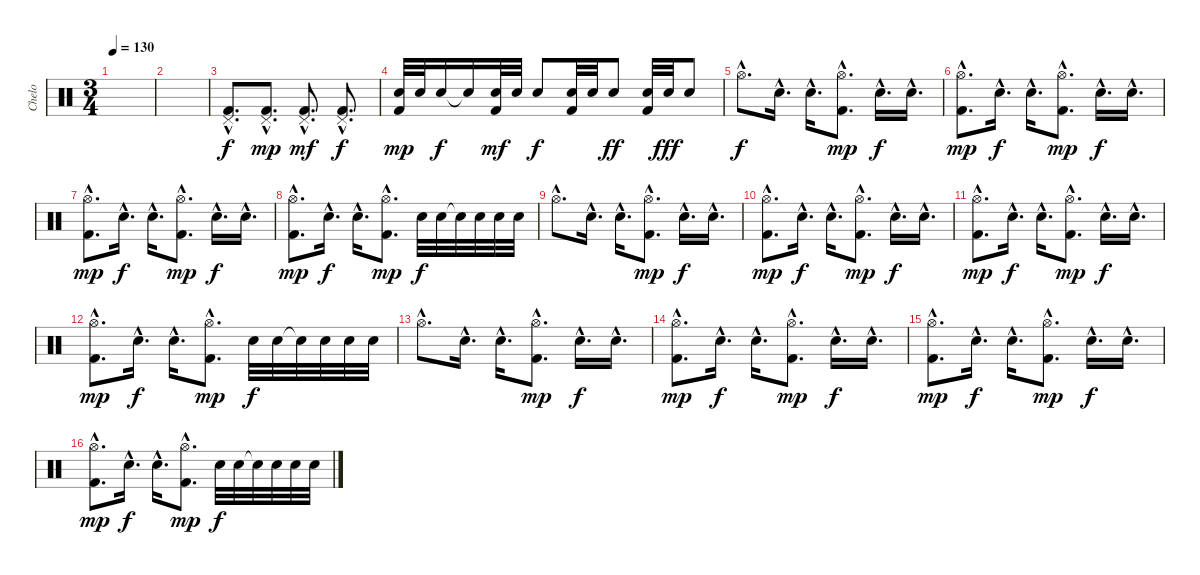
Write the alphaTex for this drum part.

\track ("Chelo" "Chelo") {instrument percussion}
\staff {score}
\articulation defaults
\ts (3 4)
\tempo 130
\clef neutral
\ks c
|
|
("Kick (hit) 2"{hac} "Pedal Hi-Hat (hit)"{hac}).8{d} ("Kick (hit) 2"{hac} "Pedal Hi-Hat (hit)"{hac}).8{d dy mp} ("Kick (hit) 2"{hac} "Pedal Hi-Hat (hit)"{hac}).8{d dy mf} ("Kick (hit) 2"{hac} "Pedal Hi-Hat (hit)"{hac}).8{d dy f} |
("Electric Snare (hit)" "Kick (hit) 2").32{dy mp} "Electric Snare (hit)".32 "Electric Snare (hit)".16{dy f} "Electric Snare (hit)"{t}.16 ("Electric Snare (hit)" "Kick (hit) 2").32{dy mf} "Electric Snare (hit)".32 "Electric Snare (hit)".8{dy f} ("Electric Snare (hit)" "Kick (hit) 2").32 "Electric Snare (hit)".32 "Electric Snare (hit)".8{dy ff} ("Electric Snare (hit)" "Kick (hit) 2").32 "Electric Snare (hit)".32{dy fff} "Electric Snare (hit)".8 |
"Hi-Hat (open)"{hac}.8{d dy f} "Electric Snare (hit)"{hac}.16{d} "Electric Snare (hit)"{hac}.16{d} ("Hi-Hat (open)"{hac} "Kick (hit) 2"{hac}).8{d dy mp} "Electric Snare (hit)"{hac}.16{d dy f} "Electric Snare (hit)"{hac}.16{d} |
("Hi-Hat (open)"{hac} "Kick (hit) 2"{hac}).8{d dy mp} "Electric Snare (hit)"{hac}.16{d dy f} "Electric Snare (hit)"{hac}.16{d} ("Hi-Hat (open)"{hac} "Kick (hit) 2"{hac}).8{d dy mp} "Electric Snare (hit)"{hac}.16{d dy f} "Electric Snare (hit)"{hac}.16{d} |
("Hi-Hat (open)"{hac} "Kick (hit) 2"{hac}).8{d dy mp} "Electric Snare (hit)"{hac}.16{d dy f} "Electric Snare (hit)"{hac}.16{d} ("Hi-Hat (open)"{hac} "Kick (hit) 2"{hac}).8{d dy mp} "Electric Snare (hit)"{hac}.16{d dy f} "Electric Snare (hit)"{hac}.16{d} |
("Hi-Hat (open)"{hac} "Kick (hit) 2"{hac}).8{d dy mp} "Electric Snare (hit)"{hac}.16{d dy f} "Electric Snare (hit)"{hac}.16{d} ("Hi-Hat (open)"{hac} "Kick (hit) 2"{hac}).8{d dy mp} "Electric Snare (hit)".32{dy f} "Electric Snare (hit)".32 "Electric Snare (hit)"{t}.32 "Electric Snare (hit)".32 "Electric Snare (hit)".32 "Electric Snare (hit)".32 |
"Hi-Hat (open)"{hac}.8{d} "Electric Snare (hit)"{hac}.16{d} "Electric Snare (hit)"{hac}.16{d} ("Hi-Hat (open)"{hac} "Kick (hit) 2"{hac}).8{d dy mp} "Electric Snare (hit)"{hac}.16{d dy f} "Electric Snare (hit)"{hac}.16{d} |
("Hi-Hat (open)"{hac} "Kick (hit) 2"{hac}).8{d dy mp} "Electric Snare (hit)"{hac}.16{d dy f} "Electric Snare (hit)"{hac}.16{d} ("Hi-Hat (open)"{hac} "Kick (hit) 2"{hac}).8{d dy mp} "Electric Snare (hit)"{hac}.16{d dy f} "Electric Snare (hit)"{hac}.16{d} |
("Hi-Hat (open)"{hac} "Kick (hit) 2"{hac}).8{d dy mp} "Electric Snare (hit)"{hac}.16{d dy f} "Electric Snare (hit)"{hac}.16{d} ("Hi-Hat (open)"{hac} "Kick (hit) 2"{hac}).8{d dy mp} "Electric Snare (hit)"{hac}.16{d dy f} "Electric Snare (hit)"{hac}.16{d} |
("Hi-Hat (open)"{hac} "Kick (hit) 2"{hac}).8{d dy mp} "Electric Snare (hit)"{hac}.16{d dy f} "Electric Snare (hit)"{hac}.16{d} ("Hi-Hat (open)"{hac} "Kick (hit) 2"{hac}).8{d dy mp} "Electric Snare (hit)".32{dy f} "Electric Snare (hit)".32 "Electric Snare (hit)"{t}.32 "Electric Snare (hit)".32 "Electric Snare (hit)".32 "Electric Snare (hit)".32 |
"Hi-Hat (open)"{hac}.8{d} "Electric Snare (hit)"{hac}.16{d} "Electric Snare (hit)"{hac}.16{d} ("Hi-Hat (open)"{hac} "Kick (hit) 2"{hac}).8{d dy mp} "Electric Snare (hit)"{hac}.16{d dy f} "Electric Snare (hit)"{hac}.16{d} |
("Hi-Hat (open)"{hac} "Kick (hit) 2"{hac}).8{d dy mp} "Electric Snare (hit)"{hac}.16{d dy f} "Electric Snare (hit)"{hac}.16{d} ("Hi-Hat (open)"{hac} "Kick (hit) 2"{hac}).8{d dy mp} "Electric Snare (hit)"{hac}.16{d dy f} "Electric Snare (hit)"{hac}.16{d} |
("Hi-Hat (open)"{hac} "Kick (hit) 2"{hac}).8{d dy mp} "Electric Snare (hit)"{hac}.16{d dy f} "Electric Snare (hit)"{hac}.16{d} ("Hi-Hat (open)"{hac} "Kick (hit) 2"{hac}).8{d dy mp} "Electric Snare (hit)"{hac}.16{d dy f} "Electric Snare (hit)"{hac}.16{d} |
("Hi-Hat (open)"{hac} "Kick (hit) 2"{hac}).8{d dy mp} "Electric Snare (hit)"{hac}.16{d dy f} "Electric Snare (hit)"{hac}.16{d} ("Hi-Hat (open)"{hac} "Kick (hit) 2"{hac}).8{d dy mp} "Electric Snare (hit)".32{dy f} "Electric Snare (hit)".32 "Electric Snare (hit)"{t}.32 "Electric Snare (hit)".32 "Electric Snare (hit)".32 "Electric Snare (hit)".32
